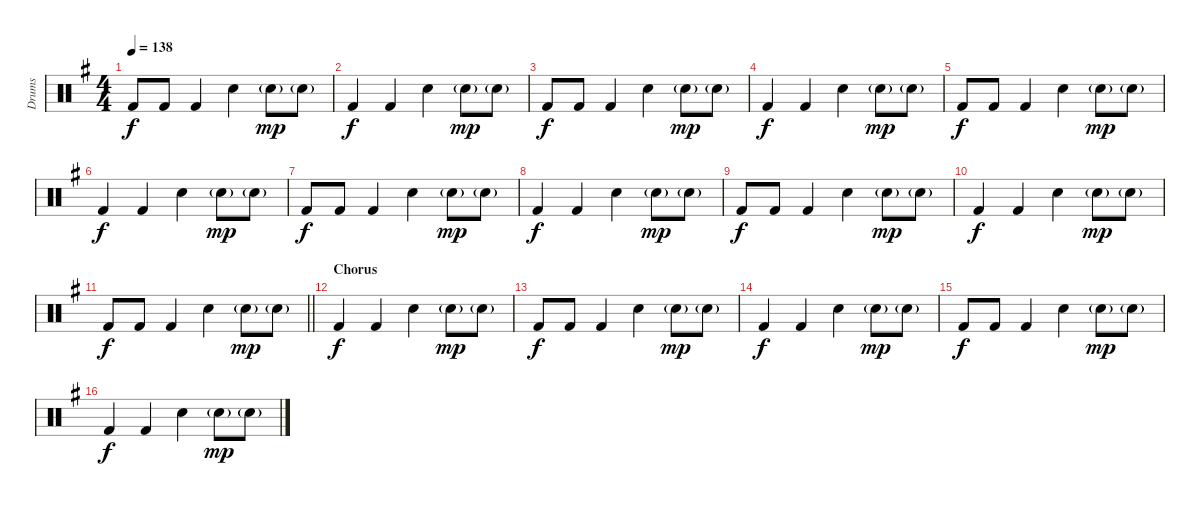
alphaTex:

\track ("Drums" "Drums") {instrument percussion}
\staff {score}
\articulation defaults
\ts (4 4)
\tempo 138
\clef neutral
\ks g "Kick (hit) 2".8{dy f} "Kick (hit) 2".8 "Kick (hit) 2".4 "Snare (hit) 2".4 "Snare (hit) 2"{g}.8{dy mp} "Snare (hit) 2"{g}.8
|
"Kick (hit) 2".4{dy f} "Kick (hit) 2".4 "Snare (hit) 2".4 "Snare (hit) 2"{g}.8{dy mp} "Snare (hit) 2"{g}.8 |
"Kick (hit) 2".8{dy f} "Kick (hit) 2".8 "Kick (hit) 2".4 "Snare (hit) 2".4 "Snare (hit) 2"{g}.8{dy mp} "Snare (hit) 2"{g}.8 |
"Kick (hit) 2".4{dy f} "Kick (hit) 2".4 "Snare (hit) 2".4 "Snare (hit) 2"{g}.8{dy mp} "Snare (hit) 2"{g}.8 |
"Kick (hit) 2".8{dy f} "Kick (hit) 2".8 "Kick (hit) 2".4 "Snare (hit) 2".4 "Snare (hit) 2"{g}.8{dy mp} "Snare (hit) 2"{g}.8 |
"Kick (hit) 2".4{dy f} "Kick (hit) 2".4 "Snare (hit) 2".4 "Snare (hit) 2"{g}.8{dy mp} "Snare (hit) 2"{g}.8 |
"Kick (hit) 2".8{dy f} "Kick (hit) 2".8 "Kick (hit) 2".4 "Snare (hit) 2".4 "Snare (hit) 2"{g}.8{dy mp} "Snare (hit) 2"{g}.8 |
"Kick (hit) 2".4{dy f} "Kick (hit) 2".4 "Snare (hit) 2".4 "Snare (hit) 2"{g}.8{dy mp} "Snare (hit) 2"{g}.8 |
"Kick (hit) 2".8{dy f} "Kick (hit) 2".8 "Kick (hit) 2".4 "Snare (hit) 2".4 "Snare (hit) 2"{g}.8{dy mp} "Snare (hit) 2"{g}.8 |
"Kick (hit) 2".4{dy f} "Kick (hit) 2".4 "Snare (hit) 2".4 "Snare (hit) 2"{g}.8{dy mp} "Snare (hit) 2"{g}.8 |
\barLineRight lightlight "Kick (hit) 2".8{dy f} "Kick (hit) 2".8 "Kick (hit) 2".4 "Snare (hit) 2".4 "Snare (hit) 2"{g}.8{dy mp} "Snare (hit) 2"{g}.8
|
\section ("" "Chorus")
"Kick (hit) 2".4{dy f} "Kick (hit) 2".4 "Snare (hit) 2".4 "Snare (hit) 2"{g}.8{dy mp} "Snare (hit) 2"{g}.8 |
"Kick (hit) 2".8{dy f} "Kick (hit) 2".8 "Kick (hit) 2".4 "Snare (hit) 2".4 "Snare (hit) 2"{g}.8{dy mp} "Snare (hit) 2"{g}.8 |
"Kick (hit) 2".4{dy f} "Kick (hit) 2".4 "Snare (hit) 2".4 "Snare (hit) 2"{g}.8{dy mp} "Snare (hit) 2"{g}.8 |
"Kick (hit) 2".8{dy f} "Kick (hit) 2".8 "Kick (hit) 2".4 "Snare (hit) 2".4 "Snare (hit) 2"{g}.8{dy mp} "Snare (hit) 2"{g}.8 |
"Kick (hit) 2".4{dy f} "Kick (hit) 2".4 "Snare (hit) 2".4 "Snare (hit) 2"{g}.8{dy mp} "Snare (hit) 2"{g}.8
